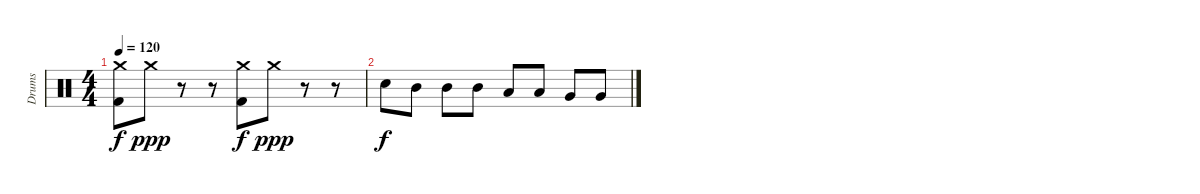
\track ("Drums" "Drums") {instrument percussion}
\staff {score}
\articulation defaults
\ts (4 4)
\tempo 120
\clef neutral
\ks c
("Crash medium (hit)" "Kick (hit) 2").8{dy f} "Crash medium (hit)".8{dy ppp} r.8 r.8 ("Crash medium (hit)" "Kick (hit) 2").8{dy f} "Crash medium (hit)".8{dy ppp} r.8 r.8 |
"Snare (hit) 2".8{dy f} "Mid Tom (hit)".8 "Mid Tom (hit)".8 "Mid Tom (hit)".8 "Low Tom (hit)".8 "Low Tom (hit)".8 "Very Low Tom (hit)".8 "Very Low Tom (hit)".8
